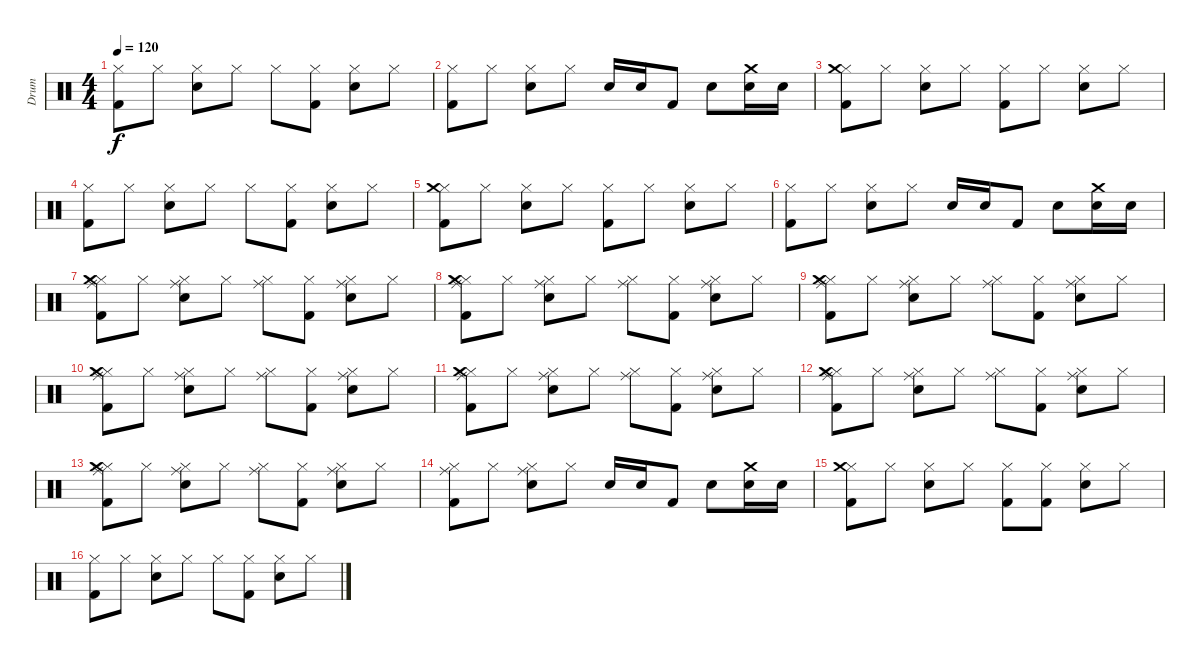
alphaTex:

\track ("Drum" "Drum") {instrument percussion}
\staff {score}
\articulation defaults
\ts (4 4)
\tempo 120
\clef neutral
\ks c
("Hi-Hat (closed)" "Kick (hit) 2").8{dy f} "Hi-Hat (closed)".8 ("Hi-Hat (closed)" "Snare (hit) 2").8 "Hi-Hat (closed)".8 "Hi-Hat (closed)".8 ("Hi-Hat (closed)" "Kick (hit) 2").8 ("Hi-Hat (closed)" "Snare (hit) 2").8 "Hi-Hat (closed)".8 |
("Hi-Hat (closed)" "Kick (hit) 2").8 "Hi-Hat (closed)".8 ("Hi-Hat (closed)" "Snare (hit) 2").8 "Hi-Hat (closed)".8 "Snare (hit) 2".16 "Snare (hit) 2".16 "Kick (hit) 2".8 "Snare (hit) 2".8 ("Crash medium (hit)" "Snare (hit) 2").16 "Snare (hit) 2".16 |
("Hi-Hat (closed)" "Kick (hit) 2" "Crash medium (hit)").8 "Hi-Hat (closed)".8 ("Hi-Hat (closed)" "Snare (hit) 2").8 "Hi-Hat (closed)".8 ("Hi-Hat (closed)" "Kick (hit) 2").8 "Hi-Hat (closed)".8 ("Hi-Hat (closed)" "Snare (hit) 2").8 "Hi-Hat (closed)".8 |
("Hi-Hat (closed)" "Kick (hit) 2").8 "Hi-Hat (closed)".8 ("Hi-Hat (closed)" "Snare (hit) 2").8 "Hi-Hat (closed)".8 "Hi-Hat (closed)".8 ("Hi-Hat (closed)" "Kick (hit) 2").8 ("Hi-Hat (closed)" "Snare (hit) 2").8 "Hi-Hat (closed)".8 |
("Hi-Hat (closed)" "Kick (hit) 2" "Crash medium (hit)").8 "Hi-Hat (closed)".8 ("Hi-Hat (closed)" "Snare (hit) 2").8 "Hi-Hat (closed)".8 ("Hi-Hat (closed)" "Kick (hit) 2").8 "Hi-Hat (closed)".8 ("Hi-Hat (closed)" "Snare (hit) 2").8 "Hi-Hat (closed)".8 |
("Hi-Hat (closed)" "Kick (hit) 2").8 "Hi-Hat (closed)".8 ("Hi-Hat (closed)" "Snare (hit) 2").8 "Hi-Hat (closed)".8 "Snare (hit) 2".16 "Snare (hit) 2".16 "Kick (hit) 2".8 "Snare (hit) 2".8 ("Crash medium (hit)" "Snare (hit) 2").16 "Snare (hit) 2".16 |
("Hi-Hat (closed)" "Kick (hit) 2" "Ride (middle)" "Crash medium (hit)").8 "Hi-Hat (closed)".8 ("Hi-Hat (closed)" "Snare (hit) 2" "Ride (middle)").8 "Hi-Hat (closed)".8 ("Hi-Hat (closed)" "Ride (middle)").8 ("Hi-Hat (closed)" "Kick (hit) 2").8 ("Hi-Hat (closed)" "Snare (hit) 2" "Ride (middle)").8 "Hi-Hat (closed)".8 |
("Hi-Hat (closed)" "Kick (hit) 2" "Ride (middle)" "Crash medium (hit)").8 "Hi-Hat (closed)".8 ("Hi-Hat (closed)" "Snare (hit) 2" "Ride (middle)").8 "Hi-Hat (closed)".8 ("Hi-Hat (closed)" "Ride (middle)").8 ("Hi-Hat (closed)" "Kick (hit) 2").8 ("Hi-Hat (closed)" "Snare (hit) 2" "Ride (middle)").8 "Hi-Hat (closed)".8 |
("Hi-Hat (closed)" "Kick (hit) 2" "Ride (middle)" "Crash medium (hit)").8 "Hi-Hat (closed)".8 ("Hi-Hat (closed)" "Snare (hit) 2" "Ride (middle)").8 "Hi-Hat (closed)".8 ("Hi-Hat (closed)" "Ride (middle)").8 ("Hi-Hat (closed)" "Kick (hit) 2").8 ("Hi-Hat (closed)" "Snare (hit) 2" "Ride (middle)").8 "Hi-Hat (closed)".8 |
("Hi-Hat (closed)" "Kick (hit) 2" "Ride (middle)" "Crash medium (hit)").8 "Hi-Hat (closed)".8 ("Hi-Hat (closed)" "Snare (hit) 2" "Ride (middle)").8 "Hi-Hat (closed)".8 ("Hi-Hat (closed)" "Ride (middle)").8 ("Hi-Hat (closed)" "Kick (hit) 2").8 ("Hi-Hat (closed)" "Snare (hit) 2" "Ride (middle)").8 "Hi-Hat (closed)".8 |
("Hi-Hat (closed)" "Kick (hit) 2" "Ride (middle)" "Crash medium (hit)").8 "Hi-Hat (closed)".8 ("Hi-Hat (closed)" "Snare (hit) 2" "Ride (middle)").8 "Hi-Hat (closed)".8 ("Hi-Hat (closed)" "Ride (middle)").8 ("Hi-Hat (closed)" "Kick (hit) 2").8 ("Hi-Hat (closed)" "Snare (hit) 2" "Ride (middle)").8 "Hi-Hat (closed)".8 |
("Hi-Hat (closed)" "Kick (hit) 2" "Ride (middle)" "Crash medium (hit)").8 "Hi-Hat (closed)".8 ("Hi-Hat (closed)" "Snare (hit) 2" "Ride (middle)").8 "Hi-Hat (closed)".8 ("Hi-Hat (closed)" "Ride (middle)").8 ("Hi-Hat (closed)" "Kick (hit) 2").8 ("Hi-Hat (closed)" "Snare (hit) 2" "Ride (middle)").8 "Hi-Hat (closed)".8 |
("Hi-Hat (closed)" "Kick (hit) 2" "Ride (middle)" "Crash medium (hit)").8 "Hi-Hat (closed)".8 ("Hi-Hat (closed)" "Snare (hit) 2" "Ride (middle)").8 "Hi-Hat (closed)".8 ("Hi-Hat (closed)" "Ride (middle)").8 ("Hi-Hat (closed)" "Kick (hit) 2").8 ("Hi-Hat (closed)" "Snare (hit) 2" "Ride (middle)").8 "Hi-Hat (closed)".8 |
("Hi-Hat (closed)" "Kick (hit) 2" "Ride (middle)").8 "Hi-Hat (closed)".8 ("Hi-Hat (closed)" "Snare (hit) 2" "Ride (middle)").8 "Hi-Hat (closed)".8 "Snare (hit) 2".16 "Snare (hit) 2".16 "Kick (hit) 2".8 "Snare (hit) 2".8 ("Crash medium (hit)" "Snare (hit) 2").16 "Snare (hit) 2".16 |
("Hi-Hat (closed)" "Kick (hit) 2" "Crash medium (hit)").8 "Hi-Hat (closed)".8 ("Hi-Hat (closed)" "Snare (hit) 2").8 "Hi-Hat (closed)".8 ("Hi-Hat (closed)" "Kick (hit) 2").8 ("Hi-Hat (closed)" "Kick (hit) 2").8 ("Hi-Hat (closed)" "Snare (hit) 2").8 "Hi-Hat (closed)".8 |
("Hi-Hat (closed)" "Kick (hit) 2").8 "Hi-Hat (closed)".8 ("Hi-Hat (closed)" "Snare (hit) 2").8 "Hi-Hat (closed)".8 "Hi-Hat (closed)".8 ("Hi-Hat (closed)" "Kick (hit) 2").8 ("Hi-Hat (closed)" "Snare (hit) 2").8 "Hi-Hat (closed)".8
